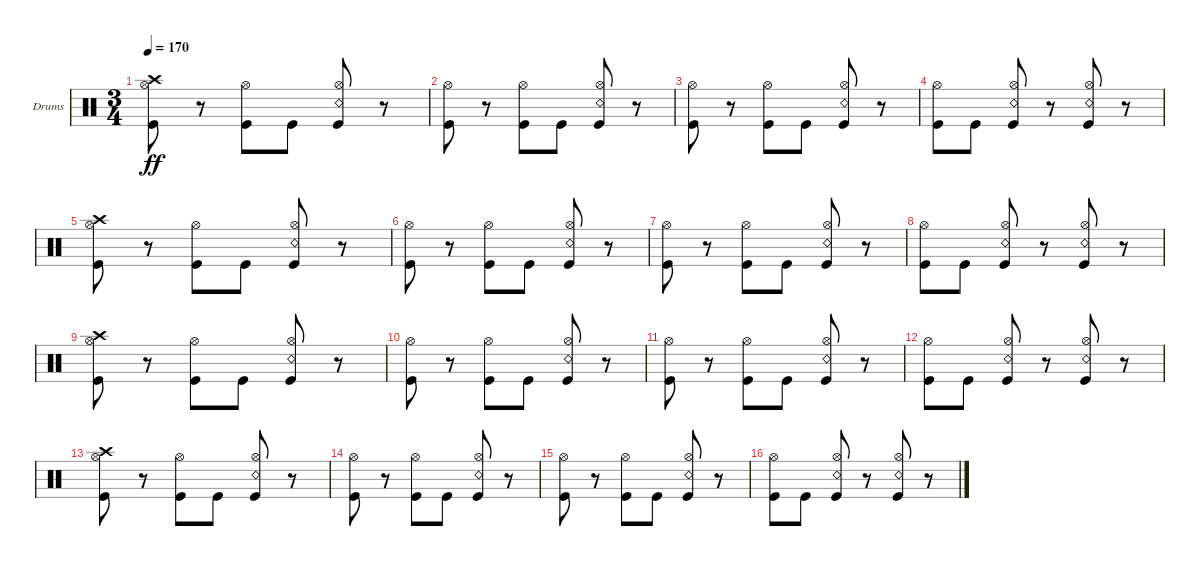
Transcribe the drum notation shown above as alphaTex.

\bracketExtendMode groupsimilarinstruments
\firstSystemTrackNameOrientation horizontal
\otherSystemsTrackNameOrientation horizontal
\track ("Kaleb - Drums" "Drums") {instrument percussion}
\staff {score}
\articulation defaults
\ts (3 4)
\tempo 170
\clef neutral
\ks c
("Kick (hit)" "Hi-Hat (open)" "Crash high (hit)").8{dy ff} r.8 ("Kick (hit)" "Hi-Hat (open)").8 "Kick (hit)".8 ("Kick (hit)" "Snare (rim shot)" "Hi-Hat (open)").8 r.8 |
("Kick (hit)" "Hi-Hat (open)").8 r.8 ("Kick (hit)" "Hi-Hat (open)").8 "Kick (hit)".8 ("Kick (hit)" "Hi-Hat (open)" "Snare (rim shot)").8 r.8 |
("Kick (hit)" "Hi-Hat (open)").8 r.8 ("Kick (hit)" "Hi-Hat (open)").8 "Kick (hit)".8 ("Kick (hit)" "Hi-Hat (open)" "Snare (rim shot)").8 r.8 |
("Kick (hit)" "Hi-Hat (open)").8 "Kick (hit)".8 ("Kick (hit)" "Hi-Hat (open)" "Snare (rim shot)").8 r.8 ("Kick (hit)" "Hi-Hat (open)" "Snare (rim shot)").8 r.8 |
("Kick (hit)" "Hi-Hat (open)" "Crash high (hit)").8 r.8 ("Kick (hit)" "Hi-Hat (open)").8 "Kick (hit)".8 ("Kick (hit)" "Snare (rim shot)" "Hi-Hat (open)").8 r.8 |
("Kick (hit)" "Hi-Hat (open)").8 r.8 ("Kick (hit)" "Hi-Hat (open)").8 "Kick (hit)".8 ("Kick (hit)" "Hi-Hat (open)" "Snare (rim shot)").8 r.8 |
("Kick (hit)" "Hi-Hat (open)").8 r.8 ("Kick (hit)" "Hi-Hat (open)").8 "Kick (hit)".8 ("Kick (hit)" "Hi-Hat (open)" "Snare (rim shot)").8 r.8 |
("Kick (hit)" "Hi-Hat (open)").8 "Kick (hit)".8 ("Kick (hit)" "Hi-Hat (open)" "Snare (rim shot)").8 r.8 ("Kick (hit)" "Hi-Hat (open)" "Snare (rim shot)").8 r.8 |
("Kick (hit)" "Hi-Hat (open)" "Crash high (hit)").8 r.8 ("Kick (hit)" "Hi-Hat (open)").8 "Kick (hit)".8 ("Kick (hit)" "Snare (rim shot)" "Hi-Hat (open)").8 r.8 |
("Kick (hit)" "Hi-Hat (open)").8 r.8 ("Kick (hit)" "Hi-Hat (open)").8 "Kick (hit)".8 ("Kick (hit)" "Hi-Hat (open)" "Snare (rim shot)").8 r.8 |
("Kick (hit)" "Hi-Hat (open)").8 r.8 ("Kick (hit)" "Hi-Hat (open)").8 "Kick (hit)".8 ("Kick (hit)" "Hi-Hat (open)" "Snare (rim shot)").8 r.8 |
("Kick (hit)" "Hi-Hat (open)").8 "Kick (hit)".8 ("Kick (hit)" "Hi-Hat (open)" "Snare (rim shot)").8 r.8 ("Kick (hit)" "Hi-Hat (open)" "Snare (rim shot)").8 r.8 |
("Kick (hit)" "Hi-Hat (open)" "Crash high (hit)").8 r.8 ("Kick (hit)" "Hi-Hat (open)").8 "Kick (hit)".8 ("Kick (hit)" "Snare (rim shot)" "Hi-Hat (open)").8 r.8 |
("Kick (hit)" "Hi-Hat (open)").8 r.8 ("Kick (hit)" "Hi-Hat (open)").8 "Kick (hit)".8 ("Kick (hit)" "Hi-Hat (open)" "Snare (rim shot)").8 r.8 |
("Kick (hit)" "Hi-Hat (open)").8 r.8 ("Kick (hit)" "Hi-Hat (open)").8 "Kick (hit)".8 ("Kick (hit)" "Hi-Hat (open)" "Snare (rim shot)").8 r.8 |
("Kick (hit)" "Hi-Hat (open)").8 "Kick (hit)".8 ("Kick (hit)" "Hi-Hat (open)" "Snare (rim shot)").8 r.8 ("Kick (hit)" "Hi-Hat (open)" "Snare (rim shot)").8 r.8
